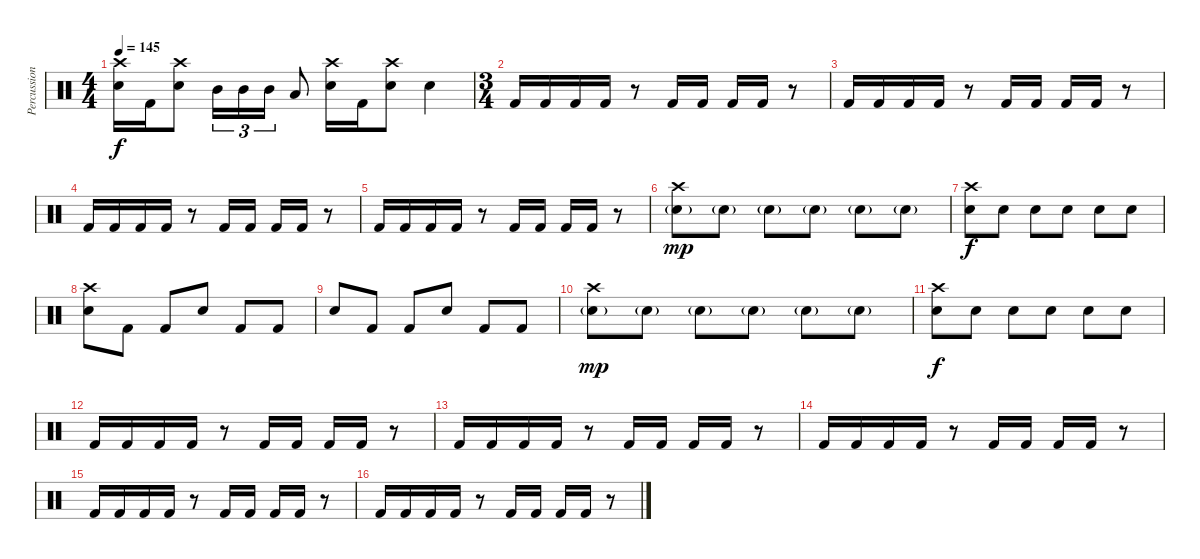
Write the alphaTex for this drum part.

\track ("Percussion" "Percussion") {instrument percussion}
\staff {score}
\articulation defaults
\ts (4 4)
\tempo 145
\clef neutral
\ks c
("Crash high (hit)" "Electric Snare (hit)").16{dy f} "Kick (hit) 2".16 ("Crash high (hit)" "Electric Snare (hit)").8 "Mid Tom (hit)".16{tu (3 2)} "Mid Tom (hit)".16{tu (3 2)} "Mid Tom (hit)".16{tu (3 2)} "Low Tom (hit)".8 ("Crash high (hit)" "Electric Snare (hit)").16 "Kick (hit) 2".16 ("Crash high (hit)" "Electric Snare (hit)").8 "Electric Snare (hit)".4 |
\ts (3 4)
"Kick (hit) 2".16 "Kick (hit) 2".16 "Kick (hit) 2".16 "Kick (hit) 2".16 r.8 "Kick (hit) 2".16 "Kick (hit) 2".16 "Kick (hit) 2".16 "Kick (hit) 2".16 r.8 |
"Kick (hit) 2".16 "Kick (hit) 2".16 "Kick (hit) 2".16 "Kick (hit) 2".16 r.8 "Kick (hit) 2".16 "Kick (hit) 2".16 "Kick (hit) 2".16 "Kick (hit) 2".16 r.8 |
"Kick (hit) 2".16 "Kick (hit) 2".16 "Kick (hit) 2".16 "Kick (hit) 2".16 r.8 "Kick (hit) 2".16 "Kick (hit) 2".16 "Kick (hit) 2".16 "Kick (hit) 2".16 r.8 |
"Kick (hit) 2".16 "Kick (hit) 2".16 "Kick (hit) 2".16 "Kick (hit) 2".16 r.8 "Kick (hit) 2".16 "Kick (hit) 2".16 "Kick (hit) 2".16 "Kick (hit) 2".16 r.8 |
("Crash high (hit)" "Electric Snare (hit)"{g}).8{dy mp} "Electric Snare (hit)"{g}.8 "Electric Snare (hit)"{g}.8 "Electric Snare (hit)"{g}.8 "Electric Snare (hit)"{g}.8 "Electric Snare (hit)"{g}.8 |
("Crash high (hit)" "Electric Snare (hit)").8{dy f} "Electric Snare (hit)".8 "Electric Snare (hit)".8 "Electric Snare (hit)".8 "Electric Snare (hit)".8 "Electric Snare (hit)".8 |
("Crash high (hit)" "Electric Snare (hit)").8 "Kick (hit) 2".8 "Kick (hit) 2".8 "Electric Snare (hit)".8 "Kick (hit) 2".8 "Kick (hit) 2".8 |
"Electric Snare (hit)".8 "Kick (hit) 2".8 "Kick (hit) 2".8 "Electric Snare (hit)".8 "Kick (hit) 2".8 "Kick (hit) 2".8 |
("Crash high (hit)" "Electric Snare (hit)"{g}).8{dy mp} "Electric Snare (hit)"{g}.8 "Electric Snare (hit)"{g}.8 "Electric Snare (hit)"{g}.8 "Electric Snare (hit)"{g}.8 "Electric Snare (hit)"{g}.8 |
("Crash high (hit)" "Electric Snare (hit)").8{dy f} "Electric Snare (hit)".8 "Electric Snare (hit)".8 "Electric Snare (hit)".8 "Electric Snare (hit)".8 "Electric Snare (hit)".8 |
"Kick (hit) 2".16 "Kick (hit) 2".16 "Kick (hit) 2".16 "Kick (hit) 2".16 r.8 "Kick (hit) 2".16 "Kick (hit) 2".16 "Kick (hit) 2".16 "Kick (hit) 2".16 r.8 |
"Kick (hit) 2".16 "Kick (hit) 2".16 "Kick (hit) 2".16 "Kick (hit) 2".16 r.8 "Kick (hit) 2".16 "Kick (hit) 2".16 "Kick (hit) 2".16 "Kick (hit) 2".16 r.8 |
"Kick (hit) 2".16 "Kick (hit) 2".16 "Kick (hit) 2".16 "Kick (hit) 2".16 r.8 "Kick (hit) 2".16 "Kick (hit) 2".16 "Kick (hit) 2".16 "Kick (hit) 2".16 r.8 |
"Kick (hit) 2".16 "Kick (hit) 2".16 "Kick (hit) 2".16 "Kick (hit) 2".16 r.8 "Kick (hit) 2".16 "Kick (hit) 2".16 "Kick (hit) 2".16 "Kick (hit) 2".16 r.8 |
"Kick (hit) 2".16 "Kick (hit) 2".16 "Kick (hit) 2".16 "Kick (hit) 2".16 r.8 "Kick (hit) 2".16 "Kick (hit) 2".16 "Kick (hit) 2".16 "Kick (hit) 2".16 r.8
